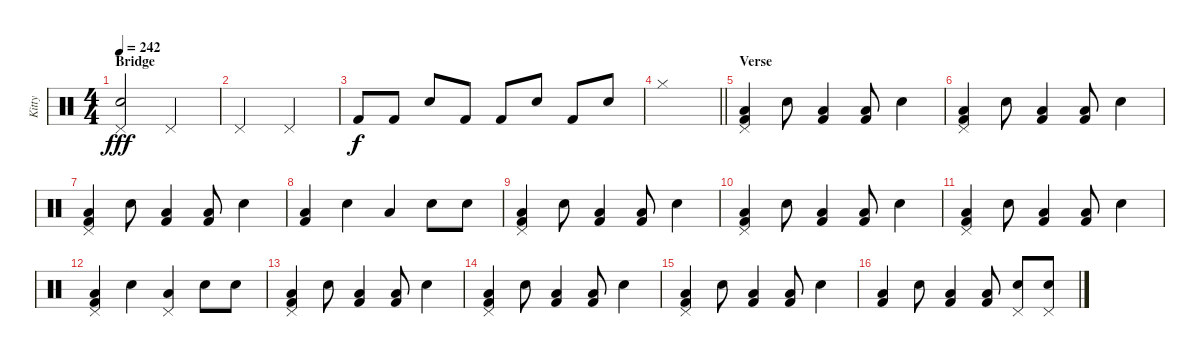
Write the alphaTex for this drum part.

\track ("Kitty" "Kitty") {instrument percussion}
\staff {score}
\articulation defaults
\ts (4 4)
\section ("" "Bridge")
\tempo 242
\clef neutral
\ks c
("Snare (hit) 2" "Pedal Hi-Hat (hit)").2{dy fff} "Pedal Hi-Hat (hit)".2 |
"Pedal Hi-Hat (hit)".2 "Pedal Hi-Hat (hit)".2 |
"Kick (hit) 2".8{dy f volume 12} "Kick (hit) 2".8 "Snare (hit) 2".8 "Kick (hit) 2".8 "Kick (hit) 2".8 "Snare (hit) 2".8 "Kick (hit) 2".8 "Snare (hit) 2".8 |
\barLineRight lightlight "Hi-Hat (closed)".1{volume 11}
|
\section ("" "Verse")
("Pedal Hi-Hat (hit)" "Low Tom (hit)" "Kick (hit) 2").4{volume 16} "Electric Snare (hit)".8 ("Low Tom (hit)" "Kick (hit) 2").4 ("Low Tom (hit)" "Kick (hit) 2").8 "Electric Snare (hit)".4 |
("Pedal Hi-Hat (hit)" "Low Tom (hit)" "Kick (hit) 2").4 "Electric Snare (hit)".8 ("Low Tom (hit)" "Kick (hit) 2").4 ("Low Tom (hit)" "Kick (hit) 2").8 "Electric Snare (hit)".4 |
("Pedal Hi-Hat (hit)" "Low Tom (hit)" "Kick (hit) 2").4 "Electric Snare (hit)".8 ("Low Tom (hit)" "Kick (hit) 2").4 ("Low Tom (hit)" "Kick (hit) 2").8 "Electric Snare (hit)".4 |
("Low Tom (hit)" "Kick (hit) 2").4 "Electric Snare (hit)".4 "Low Tom (hit)".4 "Electric Snare (hit)".8 "Electric Snare (hit)".8 |
("Pedal Hi-Hat (hit)" "Low Tom (hit)" "Kick (hit) 2").4{volume 16} "Electric Snare (hit)".8 ("Low Tom (hit)" "Kick (hit) 2").4 ("Low Tom (hit)" "Kick (hit) 2").8 "Electric Snare (hit)".4 |
("Pedal Hi-Hat (hit)" "Low Tom (hit)" "Kick (hit) 2").4 "Electric Snare (hit)".8 ("Low Tom (hit)" "Kick (hit) 2").4 ("Low Tom (hit)" "Kick (hit) 2").8 "Electric Snare (hit)".4 |
("Pedal Hi-Hat (hit)" "Low Tom (hit)" "Kick (hit) 2").4 "Electric Snare (hit)".8 ("Low Tom (hit)" "Kick (hit) 2").4 ("Low Tom (hit)" "Kick (hit) 2").8 "Electric Snare (hit)".4 |
("Pedal Hi-Hat (hit)" "Low Tom (hit)" "Kick (hit) 2").4 "Electric Snare (hit)".4 ("Pedal Hi-Hat (hit)" "Low Tom (hit)").4 "Electric Snare (hit)".8 "Electric Snare (hit)".8 |
("Pedal Hi-Hat (hit)" "Low Tom (hit)" "Kick (hit) 2").4{volume 16} "Electric Snare (hit)".8 ("Low Tom (hit)" "Kick (hit) 2").4 ("Low Tom (hit)" "Kick (hit) 2").8 "Electric Snare (hit)".4 |
("Pedal Hi-Hat (hit)" "Low Tom (hit)" "Kick (hit) 2").4 "Electric Snare (hit)".8 ("Low Tom (hit)" "Kick (hit) 2").4 ("Low Tom (hit)" "Kick (hit) 2").8 "Electric Snare (hit)".4 |
("Pedal Hi-Hat (hit)" "Low Tom (hit)" "Kick (hit) 2").4 "Electric Snare (hit)".8 ("Low Tom (hit)" "Kick (hit) 2").4 ("Low Tom (hit)" "Kick (hit) 2").8 "Electric Snare (hit)".4 |
("Low Tom (hit)" "Kick (hit) 2").4 "Electric Snare (hit)".8 ("Low Tom (hit)" "Kick (hit) 2").4 ("Low Tom (hit)" "Kick (hit) 2").8 ("Electric Snare (hit)" "Pedal Hi-Hat (hit)").8 ("Electric Snare (hit)" "Pedal Hi-Hat (hit)").8
